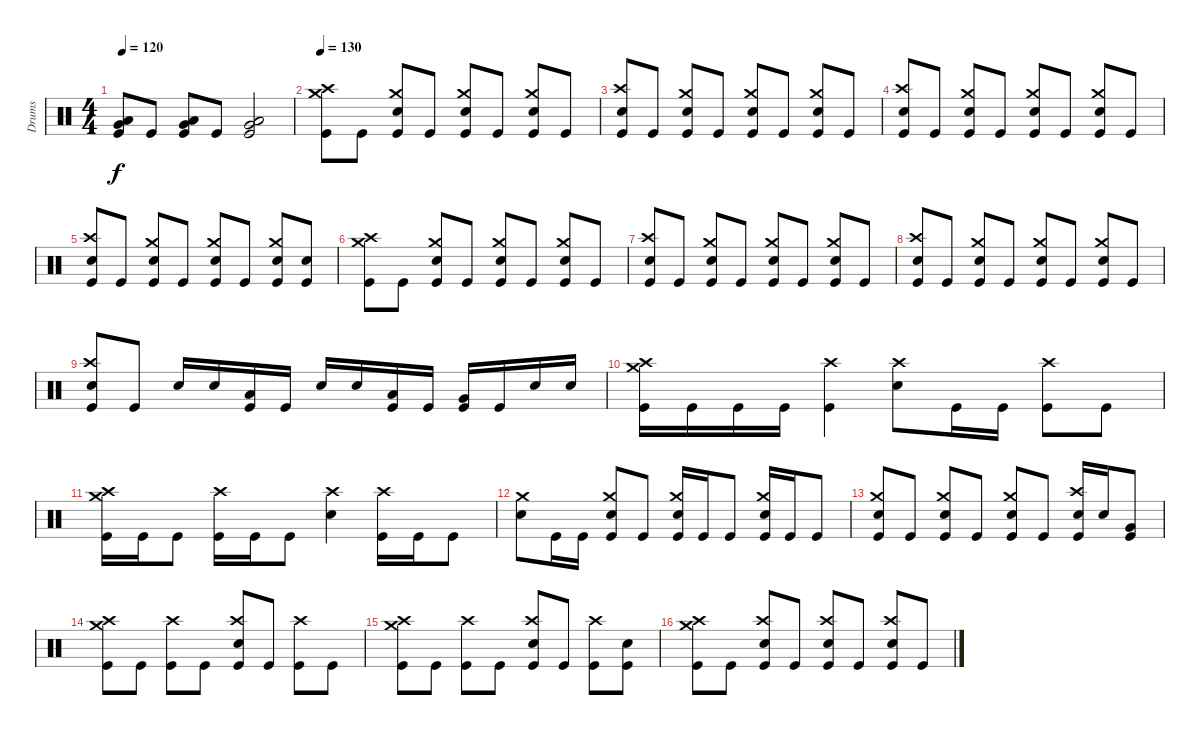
\track ("Drums" "Drums") {instrument percussion}
\staff {score}
\articulation defaults
\ts (4 4)
\tempo 120
\clef neutral
\ks c
("Low Tom (hit)" "Very Low Tom (hit)" "Kick (hit)").8{dy f} "Kick (hit)".8 ("Low Tom (hit)" "Very Low Tom (hit)" "Kick (hit)").8 "Kick (hit)".8 ("Low Floor Tom (hit)" "Very Low Tom (hit)" "Kick (hit)").2 |
\tempo 130
("Crash high (hit)" "Crash medium (hit)" "Kick (hit)").8 "Kick (hit)".8 ("Crash medium (hit)" "Snare (hit) 2" "Kick (hit)").8 "Kick (hit)".8 ("Crash medium (hit)" "Snare (hit) 2" "Kick (hit)").8 "Kick (hit)".8 ("Crash medium (hit)" "Snare (hit) 2" "Kick (hit)").8 "Kick (hit)".8 |
("Crash high (hit)" "Snare (hit) 2" "Kick (hit)").8 "Kick (hit)".8 ("Crash medium (hit)" "Snare (hit) 2" "Kick (hit)").8 "Kick (hit)".8 ("Crash medium (hit)" "Snare (hit) 2" "Kick (hit)").8 "Kick (hit)".8 ("Crash medium (hit)" "Snare (hit) 2" "Kick (hit)").8 "Kick (hit)".8 |
("Crash high (hit)" "Snare (hit) 2" "Kick (hit)").8 "Kick (hit)".8 ("Crash medium (hit)" "Snare (hit) 2" "Kick (hit)").8 "Kick (hit)".8 ("Crash medium (hit)" "Snare (hit) 2" "Kick (hit)").8 "Kick (hit)".8 ("Crash medium (hit)" "Snare (hit) 2" "Kick (hit)").8 "Kick (hit)".8 |
("Crash high (hit)" "Snare (hit) 2" "Kick (hit)").8 "Kick (hit)".8 ("Crash medium (hit)" "Snare (hit) 2" "Kick (hit)").8 "Kick (hit)".8 ("Crash medium (hit)" "Snare (hit) 2" "Kick (hit)").8 "Kick (hit)".8 ("Crash medium (hit)" "Snare (hit) 2" "Kick (hit)").8 ("Snare (hit) 2" "Kick (hit)").8 |
("Crash high (hit)" "Crash medium (hit)" "Kick (hit)").8 "Kick (hit)".8 ("Crash medium (hit)" "Snare (hit) 2" "Kick (hit)").8 "Kick (hit)".8 ("Crash medium (hit)" "Snare (hit) 2" "Kick (hit)").8 "Kick (hit)".8 ("Crash medium (hit)" "Snare (hit) 2" "Kick (hit)").8 "Kick (hit)".8 |
("Crash high (hit)" "Snare (hit) 2" "Kick (hit)").8 "Kick (hit)".8 ("Crash medium (hit)" "Snare (hit) 2" "Kick (hit)").8 "Kick (hit)".8 ("Crash medium (hit)" "Snare (hit) 2" "Kick (hit)").8 "Kick (hit)".8 ("Crash medium (hit)" "Snare (hit) 2" "Kick (hit)").8 "Kick (hit)".8 |
("Crash high (hit)" "Snare (hit) 2" "Kick (hit)").8 "Kick (hit)".8 ("Crash medium (hit)" "Snare (hit) 2" "Kick (hit)").8 "Kick (hit)".8 ("Crash medium (hit)" "Snare (hit) 2" "Kick (hit)").8 "Kick (hit)".8 ("Crash medium (hit)" "Snare (hit) 2" "Kick (hit)").8 "Kick (hit)".8 |
("Crash high (hit)" "Snare (hit) 2" "Kick (hit)").8 "Kick (hit)".8 "Snare (hit) 2".16 "Snare (hit) 2".16 ("Low Tom (hit)" "Kick (hit)").16 "Kick (hit)".16 "Snare (hit) 2".16 "Snare (hit) 2".16 ("Low Tom (hit)" "Kick (hit)").16 "Kick (hit)".16 ("Very Low Tom (hit)" "Kick (hit)").16 "Kick (hit)".16 "Snare (hit) 2".16 "Snare (hit) 2".16 |
("Crash high (hit)" "Crash medium (hit)" "Kick (hit)").16 "Kick (hit)".16 "Kick (hit)".16 "Kick (hit)".16 ("Crash high (hit)" "Kick (hit)").4 ("Crash high (hit)" "Snare (hit) 2").8 "Kick (hit)".16 "Kick (hit)".16 ("Crash high (hit)" "Kick (hit)").8 "Kick (hit)".8 |
("Crash high (hit)" "Crash medium (hit)" "Kick (hit)").16 "Kick (hit)".16 "Kick (hit)".8 ("Crash high (hit)" "Kick (hit)").16 "Kick (hit)".16 "Kick (hit)".8 ("Crash high (hit)" "Snare (hit) 2").4 ("Crash high (hit)" "Kick (hit)").16 "Kick (hit)".16 "Kick (hit)".8 |
("Crash medium (hit)" "Snare (hit) 2").8 "Kick (hit)".16 "Kick (hit)".16 ("Crash medium (hit)" "Snare (hit) 2" "Kick (hit)").8 "Kick (hit)".8 ("Crash medium (hit)" "Snare (hit) 2" "Kick (hit)").16 "Kick (hit)".16 "Kick (hit)".8 ("Crash medium (hit)" "Snare (hit) 2" "Kick (hit)").16 "Kick (hit)".16 "Kick (hit)".8 |
("Crash medium (hit)" "Snare (hit) 2" "Kick (hit)").8 "Kick (hit)".8 ("Crash medium (hit)" "Snare (hit) 2" "Kick (hit)").8 "Kick (hit)".8 ("Crash medium (hit)" "Snare (hit) 2" "Kick (hit)").8 "Kick (hit)".8 ("Crash high (hit)" "Snare (hit) 2" "Kick (hit)").16 "Snare (hit) 2".16 ("Very Low Tom (hit)" "Kick (hit)").8 |
("Crash high (hit)" "Crash medium (hit)" "Kick (hit)").8 "Kick (hit)".8 ("Crash high (hit)" "Kick (hit)").8 "Kick (hit)".8 ("Crash high (hit)" "Snare (hit) 2" "Kick (hit)").8 "Kick (hit)".8 ("Crash high (hit)" "Kick (hit)").8 "Kick (hit)".8 |
("Crash high (hit)" "Crash medium (hit)" "Kick (hit)").8 "Kick (hit)".8 ("Crash high (hit)" "Kick (hit)").8 "Kick (hit)".8 ("Crash high (hit)" "Snare (hit) 2" "Kick (hit)").8 "Kick (hit)".8 ("Crash high (hit)" "Kick (hit)").8 ("Snare (hit) 2" "Kick (hit)").8 |
("Crash high (hit)" "Crash medium (hit)" "Kick (hit)").8 "Kick (hit)".8 ("Crash high (hit)" "Snare (hit) 2" "Kick (hit)").8 "Kick (hit)".8 ("Crash high (hit)" "Snare (hit) 2" "Kick (hit)").8 "Kick (hit)".8 ("Crash high (hit)" "Snare (hit) 2" "Kick (hit)").8 "Kick (hit)".8
